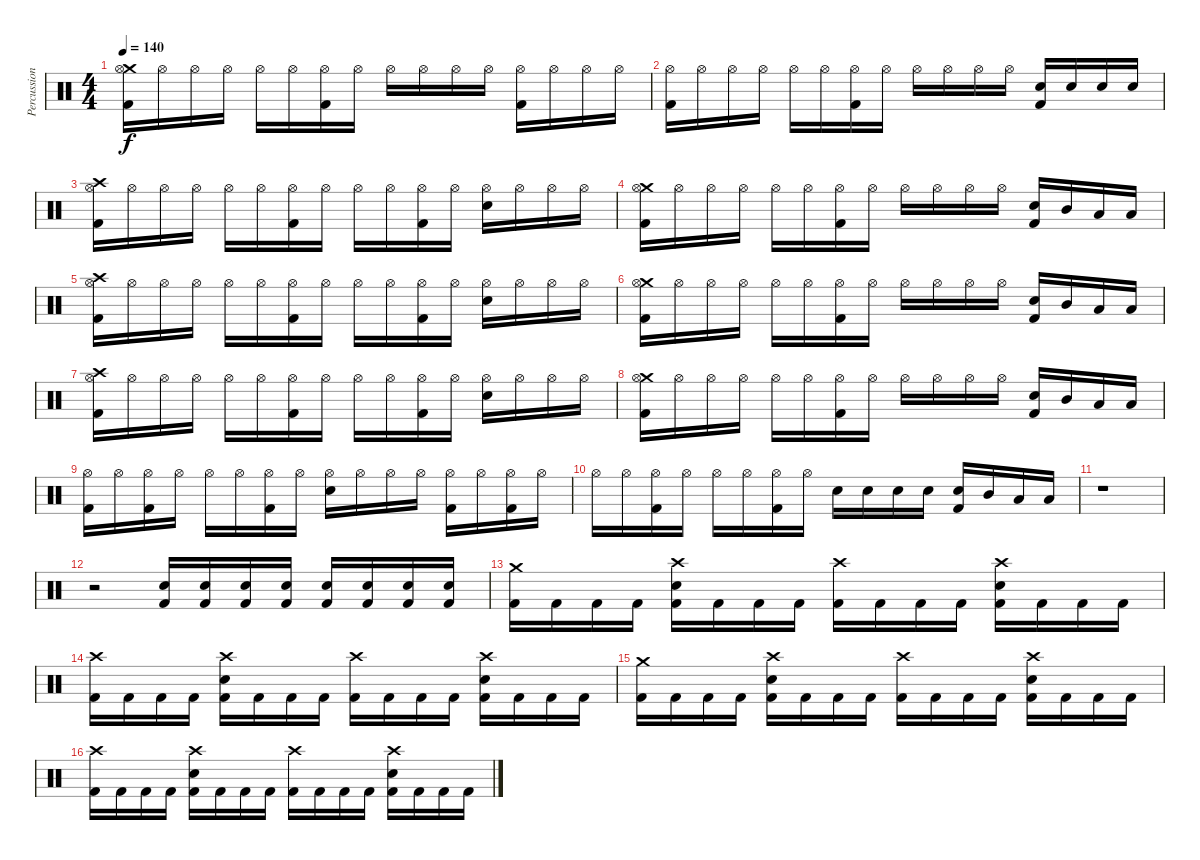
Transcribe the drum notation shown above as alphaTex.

\track ("Percussion" "Percussion") {instrument percussion}
\staff {score}
\articulation defaults
\ts (4 4)
\tempo 140
\clef neutral
\ks c
("Crash medium (hit)" "Hi-Hat (open)" "Kick (hit) 2").16{dy f} "Hi-Hat (open)".16 "Hi-Hat (open)".16 "Hi-Hat (open)".16 "Hi-Hat (open)".16 "Hi-Hat (open)".16 ("Hi-Hat (open)" "Kick (hit) 2").16 "Hi-Hat (open)".16 "Hi-Hat (open)".16 "Hi-Hat (open)".16 "Hi-Hat (open)".16 "Hi-Hat (open)".16 ("Hi-Hat (open)" "Kick (hit) 2").16 "Hi-Hat (open)".16 "Hi-Hat (open)".16 "Hi-Hat (open)".16 |
("Hi-Hat (open)" "Kick (hit) 2").16 "Hi-Hat (open)".16 "Hi-Hat (open)".16 "Hi-Hat (open)".16 "Hi-Hat (open)".16 "Hi-Hat (open)".16 ("Hi-Hat (open)" "Kick (hit) 2").16 "Hi-Hat (open)".16 "Hi-Hat (open)".16 "Hi-Hat (open)".16 "Hi-Hat (open)".16 "Hi-Hat (open)".16 ("Electric Snare (hit)" "Kick (hit) 2").16 "Electric Snare (hit)".16 "Electric Snare (hit)".16 "Electric Snare (hit)".16 |
("Crash high (hit)" "Hi-Hat (open)" "Kick (hit) 2").16 "Hi-Hat (open)".16 "Hi-Hat (open)".16 "Hi-Hat (open)".16 "Hi-Hat (open)".16 "Hi-Hat (open)".16 ("Hi-Hat (open)" "Kick (hit) 2").16 "Hi-Hat (open)".16 "Hi-Hat (open)".16 "Hi-Hat (open)".16 ("Hi-Hat (open)" "Kick (hit) 2").16 "Hi-Hat (open)".16 ("Hi-Hat (open)" "Electric Snare (hit)").16 "Hi-Hat (open)".16 "Hi-Hat (open)".16 "Hi-Hat (open)".16 |
("Crash medium (hit)" "Hi-Hat (open)" "Kick (hit) 2").16 "Hi-Hat (open)".16 "Hi-Hat (open)".16 "Hi-Hat (open)".16 "Hi-Hat (open)".16 "Hi-Hat (open)".16 ("Hi-Hat (open)" "Kick (hit) 2").16 "Hi-Hat (open)".16 "Hi-Hat (open)".16 "Hi-Hat (open)".16 "Hi-Hat (open)".16 "Hi-Hat (open)".16 ("Electric Snare (hit)" "Kick (hit) 2").16 "Mid Tom (hit)".16 "Low Tom (hit)".16 "Low Floor Tom (hit)".16 |
("Crash high (hit)" "Hi-Hat (open)" "Kick (hit) 2").16 "Hi-Hat (open)".16 "Hi-Hat (open)".16 "Hi-Hat (open)".16 "Hi-Hat (open)".16 "Hi-Hat (open)".16 ("Hi-Hat (open)" "Kick (hit) 2").16 "Hi-Hat (open)".16 "Hi-Hat (open)".16 "Hi-Hat (open)".16 ("Hi-Hat (open)" "Kick (hit) 2").16 "Hi-Hat (open)".16 ("Hi-Hat (open)" "Electric Snare (hit)").16 "Hi-Hat (open)".16 "Hi-Hat (open)".16 "Hi-Hat (open)".16 |
("Crash medium (hit)" "Hi-Hat (open)" "Kick (hit) 2").16 "Hi-Hat (open)".16 "Hi-Hat (open)".16 "Hi-Hat (open)".16 "Hi-Hat (open)".16 "Hi-Hat (open)".16 ("Hi-Hat (open)" "Kick (hit) 2").16 "Hi-Hat (open)".16 "Hi-Hat (open)".16 "Hi-Hat (open)".16 "Hi-Hat (open)".16 "Hi-Hat (open)".16 ("Electric Snare (hit)" "Kick (hit) 2").16 "Mid Tom (hit)".16 "Low Tom (hit)".16 "Low Floor Tom (hit)".16 |
("Crash high (hit)" "Hi-Hat (open)" "Kick (hit) 2").16 "Hi-Hat (open)".16 "Hi-Hat (open)".16 "Hi-Hat (open)".16 "Hi-Hat (open)".16 "Hi-Hat (open)".16 ("Hi-Hat (open)" "Kick (hit) 2").16 "Hi-Hat (open)".16 "Hi-Hat (open)".16 "Hi-Hat (open)".16 ("Hi-Hat (open)" "Kick (hit) 2").16 "Hi-Hat (open)".16 ("Hi-Hat (open)" "Electric Snare (hit)").16 "Hi-Hat (open)".16 "Hi-Hat (open)".16 "Hi-Hat (open)".16 |
("Crash medium (hit)" "Hi-Hat (open)" "Kick (hit) 2").16 "Hi-Hat (open)".16 "Hi-Hat (open)".16 "Hi-Hat (open)".16 "Hi-Hat (open)".16 "Hi-Hat (open)".16 ("Hi-Hat (open)" "Kick (hit) 2").16 "Hi-Hat (open)".16 "Hi-Hat (open)".16 "Hi-Hat (open)".16 "Hi-Hat (open)".16 "Hi-Hat (open)".16 ("Electric Snare (hit)" "Kick (hit) 2").16 "Mid Tom (hit)".16 "Low Tom (hit)".16 "Low Floor Tom (hit)".16 |
("Hi-Hat (open)" "Kick (hit) 2").16 "Hi-Hat (open)".16 ("Hi-Hat (open)" "Kick (hit) 2").16 "Hi-Hat (open)".16 "Hi-Hat (open)".16 "Hi-Hat (open)".16 ("Hi-Hat (open)" "Kick (hit) 2").16 "Hi-Hat (open)".16 ("Hi-Hat (open)" "Electric Snare (hit)").16 "Hi-Hat (open)".16 "Hi-Hat (open)".16 "Hi-Hat (open)".16 ("Hi-Hat (open)" "Kick (hit) 2").16 "Hi-Hat (open)".16 ("Hi-Hat (open)" "Kick (hit) 2").16 "Hi-Hat (open)".16 |
"Hi-Hat (open)".16 "Hi-Hat (open)".16 ("Hi-Hat (open)" "Kick (hit) 2").16 "Hi-Hat (open)".16 "Hi-Hat (open)".16 "Hi-Hat (open)".16 ("Hi-Hat (open)" "Kick (hit) 2").16 "Hi-Hat (open)".16 "Electric Snare (hit)".16 "Electric Snare (hit)".16 "Electric Snare (hit)".16 "Electric Snare (hit)".16 ("Electric Snare (hit)" "Kick (hit) 2").16 "Mid Tom (hit)".16 "Low Tom (hit)".16 "Low Floor Tom (hit)".16 |
r.1 |
r.2 ("Electric Snare (hit)" "Kick (hit) 2").16 ("Electric Snare (hit)" "Kick (hit) 2").16 ("Electric Snare (hit)" "Kick (hit) 2").16 ("Electric Snare (hit)" "Kick (hit) 2").16 ("Electric Snare (hit)" "Kick (hit) 2").16 ("Electric Snare (hit)" "Kick (hit) 2").16 ("Electric Snare (hit)" "Kick (hit) 2").16 ("Electric Snare (hit)" "Kick (hit) 2").16 |
("Crash medium (hit)" "Kick (hit) 2").16 "Kick (hit) 2".16 "Kick (hit) 2".16 "Kick (hit) 2".16 ("Crash high (hit)" "Electric Snare (hit)" "Kick (hit) 2").16 "Kick (hit) 2".16 "Kick (hit) 2".16 "Kick (hit) 2".16 ("Crash high (hit)" "Kick (hit) 2").16 "Kick (hit) 2".16 "Kick (hit) 2".16 "Kick (hit) 2".16 ("Crash high (hit)" "Electric Snare (hit)" "Kick (hit) 2").16 "Kick (hit) 2".16 "Kick (hit) 2".16 "Kick (hit) 2".16 |
("Crash high (hit)" "Kick (hit) 2").16 "Kick (hit) 2".16 "Kick (hit) 2".16 "Kick (hit) 2".16 ("Crash high (hit)" "Electric Snare (hit)" "Kick (hit) 2").16 "Kick (hit) 2".16 "Kick (hit) 2".16 "Kick (hit) 2".16 ("Crash high (hit)" "Kick (hit) 2").16 "Kick (hit) 2".16 "Kick (hit) 2".16 "Kick (hit) 2".16 ("Crash high (hit)" "Electric Snare (hit)" "Kick (hit) 2").16 "Kick (hit) 2".16 "Kick (hit) 2".16 "Kick (hit) 2".16 |
("Crash medium (hit)" "Kick (hit) 2").16 "Kick (hit) 2".16 "Kick (hit) 2".16 "Kick (hit) 2".16 ("Crash high (hit)" "Electric Snare (hit)" "Kick (hit) 2").16 "Kick (hit) 2".16 "Kick (hit) 2".16 "Kick (hit) 2".16 ("Crash high (hit)" "Kick (hit) 2").16 "Kick (hit) 2".16 "Kick (hit) 2".16 "Kick (hit) 2".16 ("Crash high (hit)" "Electric Snare (hit)" "Kick (hit) 2").16 "Kick (hit) 2".16 "Kick (hit) 2".16 "Kick (hit) 2".16 |
("Crash high (hit)" "Kick (hit) 2").16 "Kick (hit) 2".16 "Kick (hit) 2".16 "Kick (hit) 2".16 ("Crash high (hit)" "Electric Snare (hit)" "Kick (hit) 2").16 "Kick (hit) 2".16 "Kick (hit) 2".16 "Kick (hit) 2".16 ("Crash high (hit)" "Kick (hit) 2").16 "Kick (hit) 2".16 "Kick (hit) 2".16 "Kick (hit) 2".16 ("Crash high (hit)" "Electric Snare (hit)" "Kick (hit) 2").16 "Kick (hit) 2".16 "Kick (hit) 2".16 "Kick (hit) 2".16
